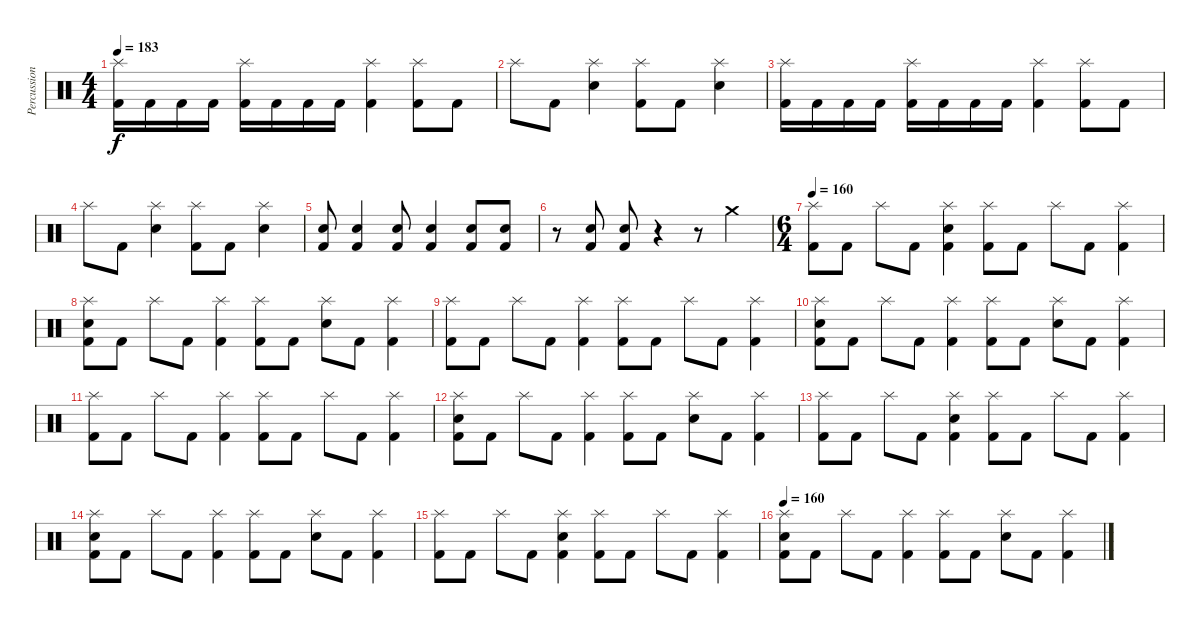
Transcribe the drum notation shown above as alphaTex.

\track ("Percussion" "Percussion") {instrument percussion}
\staff {score}
\articulation defaults
\ts (4 4)
\tempo 183
\clef neutral
\ks c
("Splash (hit)" "Kick (hit) 2").16{dy f} "Kick (hit) 2".16 "Kick (hit) 2".16 "Kick (hit) 2".16 ("Splash (hit)" "Kick (hit) 2").16 "Kick (hit) 2".16 "Kick (hit) 2".16 "Kick (hit) 2".16 ("Splash (hit)" "Kick (hit) 2").4 ("Splash (hit)" "Kick (hit) 2").8 "Kick (hit) 2".8 |
"Splash (hit)".8 "Kick (hit) 2".8 ("Splash (hit)" "Electric Snare (hit)").4 ("Splash (hit)" "Kick (hit) 2").8 "Kick (hit) 2".8 ("Splash (hit)" "Electric Snare (hit)").4 |
("Splash (hit)" "Kick (hit) 2").16 "Kick (hit) 2".16 "Kick (hit) 2".16 "Kick (hit) 2".16 ("Splash (hit)" "Kick (hit) 2").16 "Kick (hit) 2".16 "Kick (hit) 2".16 "Kick (hit) 2".16 ("Splash (hit)" "Kick (hit) 2").4 ("Splash (hit)" "Kick (hit) 2").8 "Kick (hit) 2".8 |
"Splash (hit)".8 "Kick (hit) 2".8 ("Splash (hit)" "Electric Snare (hit)").4 ("Splash (hit)" "Kick (hit) 2").8 "Kick (hit) 2".8 ("Splash (hit)" "Electric Snare (hit)").4 |
("Electric Snare (hit)" "Kick (hit) 2").8 ("Electric Snare (hit)" "Kick (hit) 2").4 ("Electric Snare (hit)" "Kick (hit) 2").8 ("Electric Snare (hit)" "Kick (hit) 2").4 ("Electric Snare (hit)" "Kick (hit) 2").8 ("Electric Snare (hit)" "Kick (hit) 2").8 |
r.8 ("Electric Snare (hit)" "Kick (hit) 2").8 ("Electric Snare (hit)" "Kick (hit) 2").8 r.4 r.8 "Crash medium (hit)".4 |
\ts (6 4)
\tempo 160
("Splash (hit)" "Kick (hit) 2").8{volume 16} "Kick (hit) 2".8 "Splash (hit)".8 "Kick (hit) 2".8 ("Splash (hit)" "Electric Snare (hit)" "Kick (hit) 2").4 ("Splash (hit)" "Kick (hit) 2").8 "Kick (hit) 2".8 "Splash (hit)".8 "Kick (hit) 2".8 ("Splash (hit)" "Kick (hit) 2").4 |
("Splash (hit)" "Electric Snare (hit)" "Kick (hit) 2").8 "Kick (hit) 2".8 "Splash (hit)".8 "Kick (hit) 2".8 ("Splash (hit)" "Kick (hit) 2").4 ("Splash (hit)" "Kick (hit) 2").8 "Kick (hit) 2".8 ("Splash (hit)" "Electric Snare (hit)").8 "Kick (hit) 2".8 ("Splash (hit)" "Kick (hit) 2").4 |
("Splash (hit)" "Kick (hit) 2").8 "Kick (hit) 2".8 "Splash (hit)".8 "Kick (hit) 2".8 ("Splash (hit)" "Kick (hit) 2").4 ("Splash (hit)" "Kick (hit) 2").8 "Kick (hit) 2".8 "Splash (hit)".8 "Kick (hit) 2".8 ("Splash (hit)" "Kick (hit) 2").4 |
("Splash (hit)" "Electric Snare (hit)" "Kick (hit) 2").8 "Kick (hit) 2".8 "Splash (hit)".8 "Kick (hit) 2".8 ("Splash (hit)" "Kick (hit) 2").4 ("Splash (hit)" "Kick (hit) 2").8 "Kick (hit) 2".8 ("Splash (hit)" "Electric Snare (hit)").8 "Kick (hit) 2".8 ("Splash (hit)" "Kick (hit) 2").4 |
("Splash (hit)" "Kick (hit) 2").8 "Kick (hit) 2".8 "Splash (hit)".8 "Kick (hit) 2".8 ("Splash (hit)" "Kick (hit) 2").4 ("Splash (hit)" "Kick (hit) 2").8 "Kick (hit) 2".8 "Splash (hit)".8 "Kick (hit) 2".8 ("Splash (hit)" "Kick (hit) 2").4 |
("Splash (hit)" "Electric Snare (hit)" "Kick (hit) 2").8 "Kick (hit) 2".8 "Splash (hit)".8 "Kick (hit) 2".8 ("Splash (hit)" "Kick (hit) 2").4 ("Splash (hit)" "Kick (hit) 2").8 "Kick (hit) 2".8 ("Splash (hit)" "Electric Snare (hit)").8 "Kick (hit) 2".8 ("Splash (hit)" "Kick (hit) 2").4 |
("Splash (hit)" "Kick (hit) 2").8 "Kick (hit) 2".8 "Splash (hit)".8 "Kick (hit) 2".8 ("Splash (hit)" "Electric Snare (hit)" "Kick (hit) 2").4 ("Splash (hit)" "Kick (hit) 2").8 "Kick (hit) 2".8 "Splash (hit)".8 "Kick (hit) 2".8 ("Splash (hit)" "Kick (hit) 2").4 |
("Splash (hit)" "Electric Snare (hit)" "Kick (hit) 2").8 "Kick (hit) 2".8 "Splash (hit)".8 "Kick (hit) 2".8 ("Splash (hit)" "Kick (hit) 2").4 ("Splash (hit)" "Kick (hit) 2").8 "Kick (hit) 2".8 ("Splash (hit)" "Electric Snare (hit)").8 "Kick (hit) 2".8 ("Splash (hit)" "Kick (hit) 2").4 |
("Splash (hit)" "Kick (hit) 2").8 "Kick (hit) 2".8 "Splash (hit)".8 "Kick (hit) 2".8 ("Splash (hit)" "Electric Snare (hit)" "Kick (hit) 2").4 ("Splash (hit)" "Kick (hit) 2").8 "Kick (hit) 2".8 "Splash (hit)".8 "Kick (hit) 2".8 ("Splash (hit)" "Kick (hit) 2").4 |
\tempo 160
("Splash (hit)" "Electric Snare (hit)" "Kick (hit) 2").8 "Kick (hit) 2".8 "Splash (hit)".8 "Kick (hit) 2".8 ("Splash (hit)" "Kick (hit) 2").4 ("Splash (hit)" "Kick (hit) 2").8 "Kick (hit) 2".8 ("Splash (hit)" "Electric Snare (hit)").8 "Kick (hit) 2".8 ("Splash (hit)" "Kick (hit) 2").4
